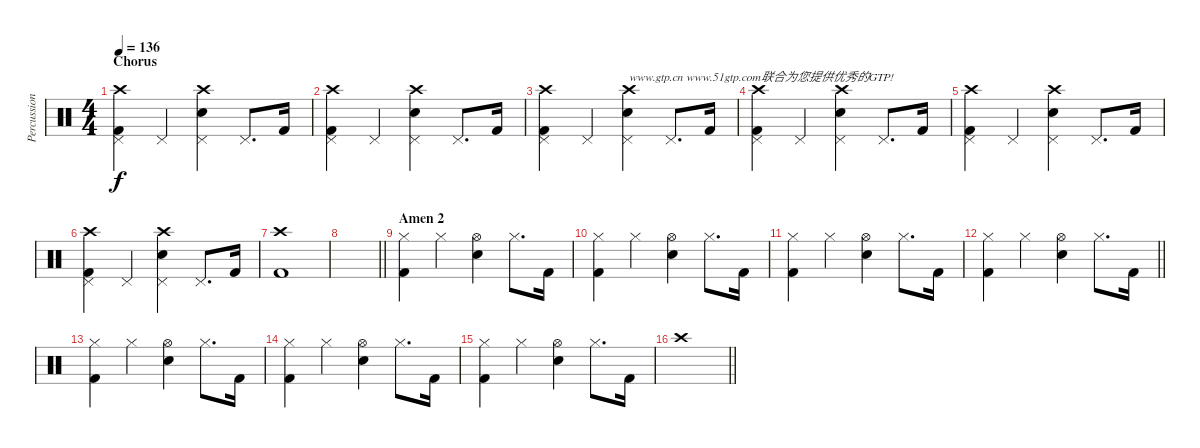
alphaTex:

\track ("Percussion" "Percussion") {instrument percussion}
\staff
\articulation defaults
\ts (4 4)
\section ("" "Chorus")
\tempo 136
\clef neutral
\ks c
("Crash high (hit)" "Pedal Hi-Hat (hit)" "Kick (hit) 2").4{dy f} "Pedal Hi-Hat (hit)".4 ("Crash high (hit)" "Snare (hit) 2" "Pedal Hi-Hat (hit)").4 "Pedal Hi-Hat (hit)".8{d} "Kick (hit) 2".16 |
("Crash high (hit)" "Pedal Hi-Hat (hit)" "Kick (hit) 2").4 "Pedal Hi-Hat (hit)".4 ("Crash high (hit)" "Snare (hit) 2" "Pedal Hi-Hat (hit)").4 "Pedal Hi-Hat (hit)".8{d} "Kick (hit) 2".16 |
("Crash high (hit)" "Pedal Hi-Hat (hit)" "Kick (hit) 2").4 "Pedal Hi-Hat (hit)".4 ("Crash high (hit)" "Snare (hit) 2" "Pedal Hi-Hat (hit)").4{txt "www.gtp.cn www.51gtp.com联合为您提供优秀的GTP!"} "Pedal Hi-Hat (hit)".8{d} "Kick (hit) 2".16 |
("Crash high (hit)" "Pedal Hi-Hat (hit)" "Kick (hit) 2").4 "Pedal Hi-Hat (hit)".4 ("Crash high (hit)" "Snare (hit) 2" "Pedal Hi-Hat (hit)").4 "Pedal Hi-Hat (hit)".8{d} "Kick (hit) 2".16 |
("Crash high (hit)" "Pedal Hi-Hat (hit)" "Kick (hit) 2").4 "Pedal Hi-Hat (hit)".4 ("Crash high (hit)" "Snare (hit) 2" "Pedal Hi-Hat (hit)").4 "Pedal Hi-Hat (hit)".8{d} "Kick (hit) 2".16 |
("Crash high (hit)" "Pedal Hi-Hat (hit)" "Kick (hit) 2").4 "Pedal Hi-Hat (hit)".4 ("Crash high (hit)" "Snare (hit) 2" "Pedal Hi-Hat (hit)").4 "Pedal Hi-Hat (hit)".8{d} "Kick (hit) 2".16 |
("Crash high (hit)" "Kick (hit) 2").1 |
\barLineRight lightlight
|
\section ("" "Amen 2")
("Hi-Hat (closed)" "Kick (hit) 2").4 "Hi-Hat (closed)".4 ("Hi-Hat (open)" "Snare (hit) 2").4 "Hi-Hat (closed)".8{d} "Kick (hit) 2".16 |
("Hi-Hat (closed)" "Kick (hit) 2").4 "Hi-Hat (closed)".4 ("Hi-Hat (open)" "Snare (hit) 2").4 "Hi-Hat (closed)".8{d} "Kick (hit) 2".16 |
("Hi-Hat (closed)" "Kick (hit) 2").4 "Hi-Hat (closed)".4 ("Hi-Hat (open)" "Snare (hit) 2").4 "Hi-Hat (closed)".8{d} "Kick (hit) 2".16 |
\barLineRight lightlight
("Hi-Hat (closed)" "Kick (hit) 2").4 "Hi-Hat (closed)".4 ("Hi-Hat (open)" "Snare (hit) 2").4 "Hi-Hat (closed)".8{d} "Kick (hit) 2".16 |
("Hi-Hat (closed)" "Kick (hit) 2").4 "Hi-Hat (closed)".4 ("Hi-Hat (open)" "Snare (hit) 2").4 "Hi-Hat (closed)".8{d} "Kick (hit) 2".16 |
("Hi-Hat (closed)" "Kick (hit) 2").4 "Hi-Hat (closed)".4 ("Hi-Hat (open)" "Snare (hit) 2").4 "Hi-Hat (closed)".8{d} "Kick (hit) 2".16 |
("Hi-Hat (closed)" "Kick (hit) 2").4 "Hi-Hat (closed)".4 ("Hi-Hat (open)" "Snare (hit) 2").4 "Hi-Hat (closed)".8{d} "Kick (hit) 2".16 |
\barLineRight lightlight "Crash high (hit)".1
